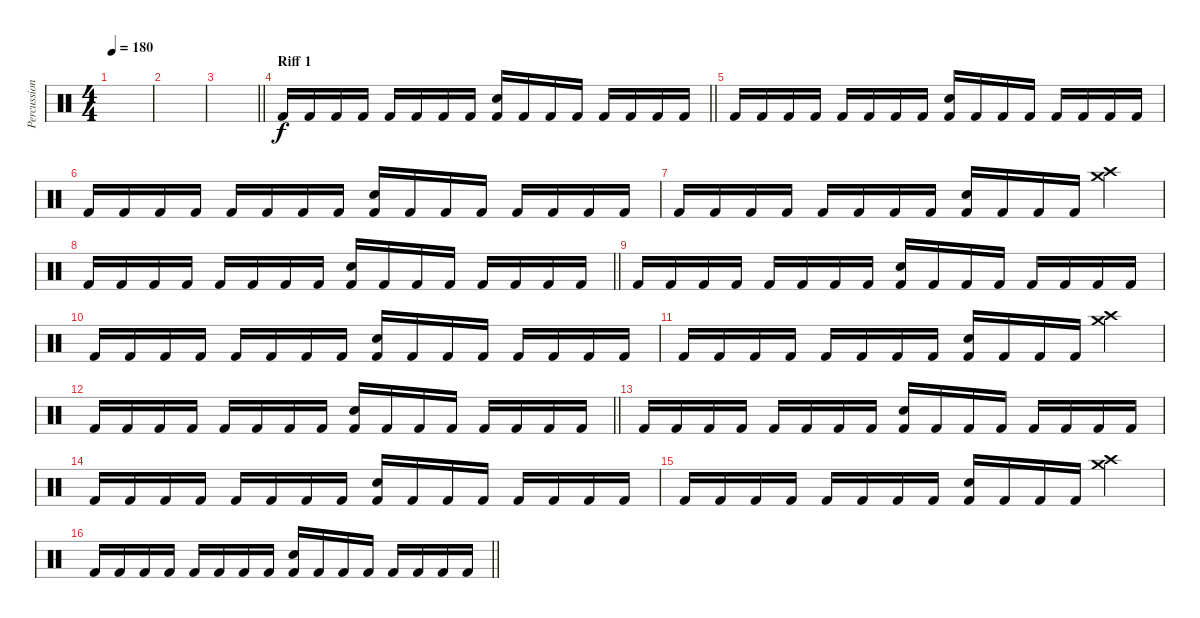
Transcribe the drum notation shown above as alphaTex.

\track ("Percussion" "Percussion") {instrument percussion}
\staff {score}
\articulation defaults
\ts (4 4)
\tempo 180
\clef neutral
\ks c
|
|
\barLineRight lightlight
|
\section ("" "Riff 1")
\barLineRight lightlight "Kick (hit) 2".16 "Kick (hit) 2".16 "Kick (hit) 2".16 "Kick (hit) 2".16 "Kick (hit) 2".16 "Kick (hit) 2".16 "Kick (hit) 2".16 "Kick (hit) 2".16
("Kick (hit) 2" "Electric Snare (hit)").16 "Kick (hit) 2".16 "Kick (hit) 2".16 "Kick (hit) 2".16 "Kick (hit) 2".16 "Kick (hit) 2".16 "Kick (hit) 2".16 "Kick (hit) 2".16 |
"Kick (hit) 2".16 "Kick (hit) 2".16 "Kick (hit) 2".16 "Kick (hit) 2".16 "Kick (hit) 2".16 "Kick (hit) 2".16 "Kick (hit) 2".16 "Kick (hit) 2".16 ("Kick (hit) 2" "Electric Snare (hit)").16 "Kick (hit) 2".16 "Kick (hit) 2".16 "Kick (hit) 2".16 "Kick (hit) 2".16 "Kick (hit) 2".16 "Kick (hit) 2".16 "Kick (hit) 2".16 |
"Kick (hit) 2".16 "Kick (hit) 2".16 "Kick (hit) 2".16 "Kick (hit) 2".16 "Kick (hit) 2".16 "Kick (hit) 2".16 "Kick (hit) 2".16 "Kick (hit) 2".16 ("Kick (hit) 2" "Electric Snare (hit)").16 "Kick (hit) 2".16 "Kick (hit) 2".16 "Kick (hit) 2".16 "Kick (hit) 2".16 "Kick (hit) 2".16 "Kick (hit) 2".16 "Kick (hit) 2".16 |
"Kick (hit) 2".16 "Kick (hit) 2".16 "Kick (hit) 2".16 "Kick (hit) 2".16 "Kick (hit) 2".16 "Kick (hit) 2".16 "Kick (hit) 2".16 "Kick (hit) 2".16 ("Kick (hit) 2" "Electric Snare (hit)").16 "Kick (hit) 2".16 "Kick (hit) 2".16 "Kick (hit) 2".16 ("Crash high (hit)" "Crash medium (hit)").4 |
\barLineRight lightlight "Kick (hit) 2".16 "Kick (hit) 2".16 "Kick (hit) 2".16 "Kick (hit) 2".16 "Kick (hit) 2".16 "Kick (hit) 2".16 "Kick (hit) 2".16 "Kick (hit) 2".16
("Kick (hit) 2" "Electric Snare (hit)").16 "Kick (hit) 2".16 "Kick (hit) 2".16 "Kick (hit) 2".16 "Kick (hit) 2".16 "Kick (hit) 2".16 "Kick (hit) 2".16 "Kick (hit) 2".16 |
"Kick (hit) 2".16 "Kick (hit) 2".16 "Kick (hit) 2".16 "Kick (hit) 2".16 "Kick (hit) 2".16 "Kick (hit) 2".16 "Kick (hit) 2".16 "Kick (hit) 2".16 ("Kick (hit) 2" "Electric Snare (hit)").16 "Kick (hit) 2".16 "Kick (hit) 2".16 "Kick (hit) 2".16 "Kick (hit) 2".16 "Kick (hit) 2".16 "Kick (hit) 2".16 "Kick (hit) 2".16 |
"Kick (hit) 2".16 "Kick (hit) 2".16 "Kick (hit) 2".16 "Kick (hit) 2".16 "Kick (hit) 2".16 "Kick (hit) 2".16 "Kick (hit) 2".16 "Kick (hit) 2".16 ("Kick (hit) 2" "Electric Snare (hit)").16 "Kick (hit) 2".16 "Kick (hit) 2".16 "Kick (hit) 2".16 "Kick (hit) 2".16 "Kick (hit) 2".16 "Kick (hit) 2".16 "Kick (hit) 2".16 |
"Kick (hit) 2".16 "Kick (hit) 2".16 "Kick (hit) 2".16 "Kick (hit) 2".16 "Kick (hit) 2".16 "Kick (hit) 2".16 "Kick (hit) 2".16 "Kick (hit) 2".16 ("Kick (hit) 2" "Electric Snare (hit)").16 "Kick (hit) 2".16 "Kick (hit) 2".16 "Kick (hit) 2".16 ("Crash high (hit)" "Crash medium (hit)").4 |
\barLineRight lightlight "Kick (hit) 2".16 "Kick (hit) 2".16 "Kick (hit) 2".16 "Kick (hit) 2".16 "Kick (hit) 2".16 "Kick (hit) 2".16 "Kick (hit) 2".16 "Kick (hit) 2".16
("Kick (hit) 2" "Electric Snare (hit)").16 "Kick (hit) 2".16 "Kick (hit) 2".16 "Kick (hit) 2".16 "Kick (hit) 2".16 "Kick (hit) 2".16 "Kick (hit) 2".16 "Kick (hit) 2".16 |
"Kick (hit) 2".16 "Kick (hit) 2".16 "Kick (hit) 2".16 "Kick (hit) 2".16 "Kick (hit) 2".16 "Kick (hit) 2".16 "Kick (hit) 2".16 "Kick (hit) 2".16 ("Kick (hit) 2" "Electric Snare (hit)").16 "Kick (hit) 2".16 "Kick (hit) 2".16 "Kick (hit) 2".16 "Kick (hit) 2".16 "Kick (hit) 2".16 "Kick (hit) 2".16 "Kick (hit) 2".16 |
"Kick (hit) 2".16 "Kick (hit) 2".16 "Kick (hit) 2".16 "Kick (hit) 2".16 "Kick (hit) 2".16 "Kick (hit) 2".16 "Kick (hit) 2".16 "Kick (hit) 2".16 ("Kick (hit) 2" "Electric Snare (hit)").16 "Kick (hit) 2".16 "Kick (hit) 2".16 "Kick (hit) 2".16 "Kick (hit) 2".16 "Kick (hit) 2".16 "Kick (hit) 2".16 "Kick (hit) 2".16 |
"Kick (hit) 2".16 "Kick (hit) 2".16 "Kick (hit) 2".16 "Kick (hit) 2".16 "Kick (hit) 2".16 "Kick (hit) 2".16 "Kick (hit) 2".16 "Kick (hit) 2".16 ("Kick (hit) 2" "Electric Snare (hit)").16 "Kick (hit) 2".16 "Kick (hit) 2".16 "Kick (hit) 2".16 ("Crash high (hit)" "Crash medium (hit)").4 |
\barLineRight lightlight "Kick (hit) 2".16 "Kick (hit) 2".16 "Kick (hit) 2".16 "Kick (hit) 2".16 "Kick (hit) 2".16 "Kick (hit) 2".16 "Kick (hit) 2".16 "Kick (hit) 2".16
("Kick (hit) 2" "Electric Snare (hit)").16 "Kick (hit) 2".16 "Kick (hit) 2".16 "Kick (hit) 2".16 "Kick (hit) 2".16 "Kick (hit) 2".16 "Kick (hit) 2".16 "Kick (hit) 2".16
